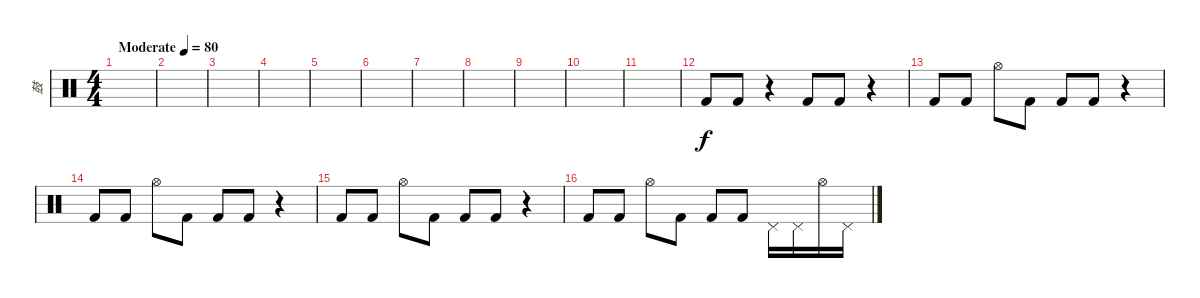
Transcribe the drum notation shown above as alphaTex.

\track ("鼓" "鼓") {instrument percussion}
\staff {score}
\articulation defaults
\ts (4 4)
\tempo (80 "Moderate")
\clef neutral
\ks c
|
|
|
|
|
|
|
|
|
|
|
"Kick (hit) 2".8 "Kick (hit) 2".8 r.4 "Kick (hit) 2".8 "Kick (hit) 2".8 r.4 |
"Kick (hit) 2".8 "Kick (hit) 2".8 "Hi-Hat (open)".8 "Kick (hit) 2".8 "Kick (hit) 2".8 "Kick (hit) 2".8 r.4 |
"Kick (hit) 2".8 "Kick (hit) 2".8 "Hi-Hat (open)".8 "Kick (hit) 2".8 "Kick (hit) 2".8 "Kick (hit) 2".8 r.4 |
"Kick (hit) 2".8 "Kick (hit) 2".8 "Hi-Hat (open)".8 "Kick (hit) 2".8 "Kick (hit) 2".8 "Kick (hit) 2".8 r.4 |
"Kick (hit) 2".8 "Kick (hit) 2".8 "Hi-Hat (open)".8 "Kick (hit) 2".8 "Kick (hit) 2".8 "Kick (hit) 2".8 "Pedal Hi-Hat (hit)".16 "Pedal Hi-Hat (hit)".16 "Hi-Hat (open)".16 "Pedal Hi-Hat (hit)".16
